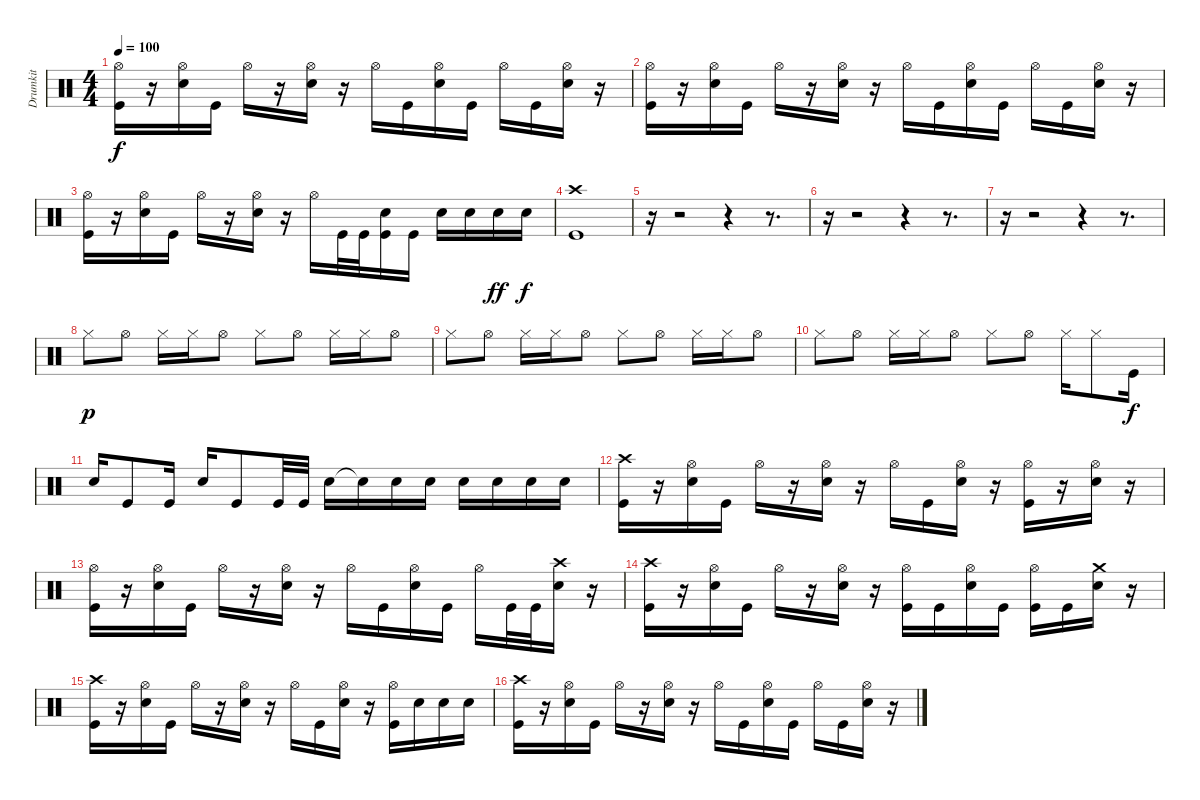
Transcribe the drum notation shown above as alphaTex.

\track ("Drumkit" "Drumkit") {solo instrument percussion}
\staff {score}
\articulation defaults
\ts (4 4)
\tempo 100
\clef neutral
\ks c
("Hi-Hat (open)" "Kick (hit)").16{dy f} r.16 ("Hi-Hat (open)" "Snare (hit) 2").16 "Kick (hit)".16 "Hi-Hat (open)".16 r.16 ("Hi-Hat (open)" "Snare (hit) 2").16 r.16 "Hi-Hat (open)".16 "Kick (hit)".16 ("Hi-Hat (open)" "Snare (hit) 2").16 "Kick (hit)".16 "Hi-Hat (open)".16 "Kick (hit)".16 ("Hi-Hat (open)" "Snare (hit) 2").16 r.16 |
("Hi-Hat (open)" "Kick (hit)").16 r.16 ("Hi-Hat (open)" "Snare (hit) 2").16 "Kick (hit)".16 "Hi-Hat (open)".16 r.16 ("Hi-Hat (open)" "Snare (hit) 2").16 r.16 "Hi-Hat (open)".16 "Kick (hit)".16 ("Hi-Hat (open)" "Snare (hit) 2").16 "Kick (hit)".16 "Hi-Hat (open)".16 "Kick (hit)".16 ("Hi-Hat (open)" "Snare (hit) 2").16 r.16 |
("Hi-Hat (open)" "Kick (hit)").16 r.16 ("Hi-Hat (open)" "Snare (hit) 2").16 "Kick (hit)".16 "Hi-Hat (open)".16 r.16 ("Hi-Hat (open)" "Snare (hit) 2").16 r.16 "Hi-Hat (open)".16 "Kick (hit)".32 "Kick (hit)".32 ("Snare (hit) 2" "Kick (hit)").16 "Kick (hit)".16 "Snare (hit) 2".16 "Snare (hit) 2".16 "Snare (hit) 2".16{dy ff} "Snare (hit) 2".16{dy f} |
("Crash high (hit)" "Kick (hit)").1 |
r.16 r.2 r.4 r.8{d} |
r.16 r.2 r.4 r.8{d} |
r.16 r.2 r.4 r.8{d} |
"Hi-Hat (closed)".8{dy p} "Hi-Hat (open)".8 "Hi-Hat (closed)".16 "Hi-Hat (closed)".16 "Hi-Hat (open)".8 "Hi-Hat (closed)".8 "Hi-Hat (open)".8 "Hi-Hat (closed)".16 "Hi-Hat (closed)".16 "Hi-Hat (open)".8 |
"Hi-Hat (closed)".8 "Hi-Hat (open)".8 "Hi-Hat (closed)".16 "Hi-Hat (closed)".16 "Hi-Hat (open)".8 "Hi-Hat (closed)".8 "Hi-Hat (open)".8 "Hi-Hat (closed)".16 "Hi-Hat (closed)".16 "Hi-Hat (open)".8 |
"Hi-Hat (closed)".8 "Hi-Hat (open)".8 "Hi-Hat (closed)".16 "Hi-Hat (closed)".16 "Hi-Hat (open)".8 "Hi-Hat (closed)".8 "Hi-Hat (open)".8 "Hi-Hat (closed)".16 "Hi-Hat (closed)".8 "Kick (hit)".16{dy f} |
"Snare (hit) 2".16 "Kick (hit)".8 "Kick (hit)".16 "Snare (hit) 2".16 "Kick (hit)".8 "Kick (hit)".32 "Kick (hit)".32 "Snare (hit) 2".16 "Snare (hit) 2"{t}.16 "Snare (hit) 2".16 "Snare (hit) 2".16 "Snare (hit) 2".16 "Snare (hit) 2".16 "Snare (hit) 2".16 "Snare (hit) 2".16 |
("Crash high (hit)" "Kick (hit)").16 r.16 ("Hi-Hat (open)" "Snare (hit) 2").16 "Kick (hit)".16 "Hi-Hat (open)".16 r.16 ("Hi-Hat (open)" "Snare (hit) 2").16 r.16 "Hi-Hat (open)".16 "Kick (hit)".16 ("Hi-Hat (open)" "Snare (hit) 2").16 r.16 ("Hi-Hat (open)" "Kick (hit)").16 r.16 ("Hi-Hat (open)" "Snare (hit) 2").16 r.16 |
("Hi-Hat (open)" "Kick (hit)").16 r.16 ("Hi-Hat (open)" "Snare (hit) 2").16 "Kick (hit)".16 "Hi-Hat (open)".16 r.16 ("Hi-Hat (open)" "Snare (hit) 2").16 r.16 "Hi-Hat (open)".16 "Kick (hit)".16 ("Hi-Hat (open)" "Snare (hit) 2").16 "Kick (hit)".16 "Hi-Hat (open)".16 "Kick (hit)".32 "Kick (hit)".32 ("Crash high (hit)" "Snare (hit) 2").16 r.16 |
("Crash high (hit)" "Kick (hit)").16 r.16 ("Hi-Hat (open)" "Snare (hit) 2").16 "Kick (hit)".16 "Hi-Hat (open)".16 r.16 ("Hi-Hat (open)" "Snare (hit) 2").16 r.16 ("Hi-Hat (open)" "Kick (hit)").16 "Kick (hit)".16 ("Hi-Hat (open)" "Snare (hit) 2").16 "Kick (hit)".16 ("Hi-Hat (open)" "Kick (hit)").16 "Kick (hit)".16 ("Crash medium (hit)" "Snare (hit) 2").16 r.16 |
("Crash high (hit)" "Kick (hit)").16 r.16 ("Hi-Hat (open)" "Snare (hit) 2").16 "Kick (hit)".16 "Hi-Hat (open)".16 r.16 ("Hi-Hat (open)" "Snare (hit) 2").16 r.16 "Hi-Hat (open)".16 "Kick (hit)".16 ("Hi-Hat (open)" "Snare (hit) 2").16 r.16 ("Hi-Hat (open)" "Kick (hit)").16 "Snare (hit) 2".16 "Snare (hit) 2".16 "Snare (hit) 2".16 |
("Crash high (hit)" "Kick (hit)").16 r.16 ("Hi-Hat (open)" "Snare (hit) 2").16 "Kick (hit)".16 "Hi-Hat (open)".16 r.16 ("Hi-Hat (open)" "Snare (hit) 2").16 r.16 "Hi-Hat (open)".16 "Kick (hit)".16 ("Hi-Hat (open)" "Snare (hit) 2").16 "Kick (hit)".16 "Hi-Hat (open)".16 "Kick (hit)".16 ("Hi-Hat (open)" "Snare (hit) 2").16 r.16
